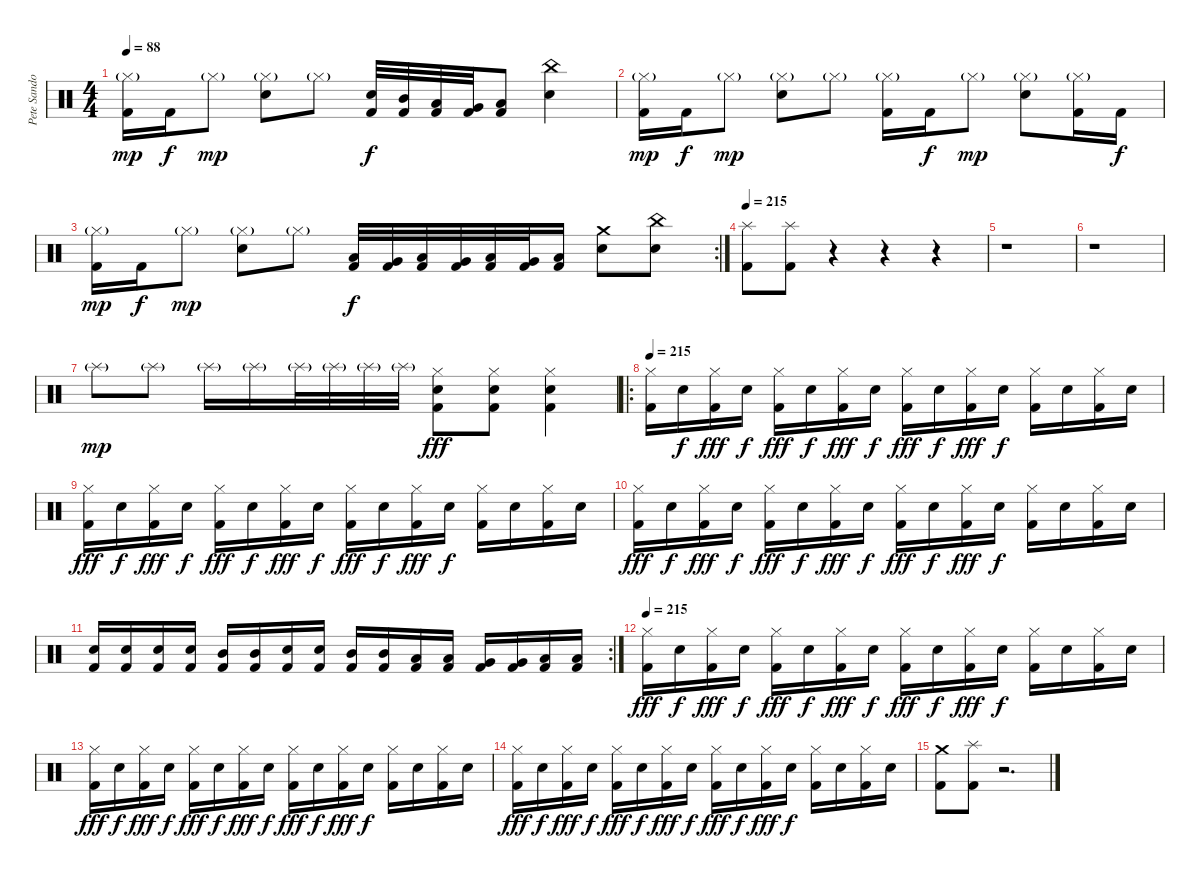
\track ("Pete Sandoval" "Pete Sando") {instrument percussion}
\staff {score}
\articulation defaults
\ts (4 4)
\tempo 88
\clef neutral
\ks c
("Hi-Hat (closed)"{g} "Kick (hit) 2").16{dy mp} "Kick (hit) 2".16{dy f} "Hi-Hat (closed)"{g}.8{dy mp} ("Hi-Hat (closed)"{g} "Snare (hit) 2").8 "Hi-Hat (closed)"{g}.8 ("Snare (hit) 2" "Kick (hit) 2").32{dy f} ("Mid Tom (hit)" "Kick (hit) 2").32 ("Low Tom (hit)" "Kick (hit) 2").32 ("Very Low Tom (hit)" "Kick (hit) 2").32 ("Low Floor Tom (hit)" "Kick (hit) 2").8 ("China (hit)" "Snare (hit) 2").4 |
("Hi-Hat (closed)"{g} "Kick (hit) 2").16{dy mp} "Kick (hit) 2".16{dy f} "Hi-Hat (closed)"{g}.8{dy mp} ("Hi-Hat (closed)"{g} "Snare (hit) 2").8 "Hi-Hat (closed)"{g}.8 ("Hi-Hat (closed)"{g} "Kick (hit) 2").16 "Kick (hit) 2".16{dy f} "Hi-Hat (closed)"{g}.8{dy mp} ("Hi-Hat (closed)"{g} "Snare (hit) 2").8 ("Hi-Hat (closed)"{g} "Kick (hit) 2").16 "Kick (hit) 2".16{dy f} |
\rc 2
("Hi-Hat (closed)"{g} "Kick (hit) 2").16{dy mp} "Kick (hit) 2".16{dy f} "Hi-Hat (closed)"{g}.8{dy mp} ("Hi-Hat (closed)"{g} "Snare (hit) 2").8 "Hi-Hat (closed)"{g}.8 ("Low Tom (hit)" "Kick (hit) 2").32{dy f} ("Very Low Tom (hit)" "Kick (hit) 2").32 ("Low Floor Tom (hit)" "Kick (hit) 2").32 ("Very Low Tom (hit)" "Kick (hit) 2").32 ("Low Tom (hit)" "Kick (hit) 2").32 ("Very Low Tom (hit)" "Kick (hit) 2").32 ("Low Floor Tom (hit)" "Kick (hit) 2").16 ("Crash medium (hit)" "Snare (hit) 2").8 ("China (hit)" "Snare (hit) 2").8 |
\tempo 215
("Splash (hit)" "Kick (hit) 2").8 ("Splash (hit)" "Kick (hit) 2").8 r.4 r.4 r.4 |
r.1 |
r.1 |
"Splash (hit)"{g}.8{dy mp} "Splash (hit)"{g}.8 "Splash (hit)"{g}.16 "Splash (hit)"{g}.16 "Splash (hit)"{g}.32 "Splash (hit)"{g}.32 "Splash (hit)"{g}.32 "Splash (hit)"{g}.32 ("Hi-Hat (closed)" "Snare (hit) 2" "Kick (hit) 2").8{dy fff} ("Hi-Hat (closed)" "Snare (hit) 2" "Kick (hit) 2").8 ("Hi-Hat (closed)" "Snare (hit) 2" "Kick (hit) 2").4 |
\ro
\tempo 215
("Hi-Hat (closed)" "Kick (hit) 2").16 "Snare (hit) 2".16{dy f} ("Hi-Hat (closed)" "Kick (hit) 2").16{dy fff} "Snare (hit) 2".16{dy f} ("Hi-Hat (closed)" "Kick (hit) 2").16{dy fff} "Snare (hit) 2".16{dy f} ("Hi-Hat (closed)" "Kick (hit) 2").16{dy fff} "Snare (hit) 2".16{dy f} ("Hi-Hat (closed)" "Kick (hit) 2").16{dy fff} "Snare (hit) 2".16{dy f} ("Hi-Hat (closed)" "Kick (hit) 2").16{dy fff} "Snare (hit) 2".16{dy f} ("Hi-Hat (closed)" "Kick (hit) 2").16 "Snare (hit) 2".16 ("Hi-Hat (closed)" "Kick (hit) 2").16 "Snare (hit) 2".16 |
("Hi-Hat (closed)" "Kick (hit) 2").16{dy fff} "Snare (hit) 2".16{dy f} ("Hi-Hat (closed)" "Kick (hit) 2").16{dy fff} "Snare (hit) 2".16{dy f} ("Hi-Hat (closed)" "Kick (hit) 2").16{dy fff} "Snare (hit) 2".16{dy f} ("Hi-Hat (closed)" "Kick (hit) 2").16{dy fff} "Snare (hit) 2".16{dy f} ("Hi-Hat (closed)" "Kick (hit) 2").16{dy fff} "Snare (hit) 2".16{dy f} ("Hi-Hat (closed)" "Kick (hit) 2").16{dy fff} "Snare (hit) 2".16{dy f} ("Hi-Hat (closed)" "Kick (hit) 2").16 "Snare (hit) 2".16 ("Hi-Hat (closed)" "Kick (hit) 2").16 "Snare (hit) 2".16 |
("Hi-Hat (closed)" "Kick (hit) 2").16{dy fff} "Snare (hit) 2".16{dy f} ("Hi-Hat (closed)" "Kick (hit) 2").16{dy fff} "Snare (hit) 2".16{dy f} ("Hi-Hat (closed)" "Kick (hit) 2").16{dy fff} "Snare (hit) 2".16{dy f} ("Hi-Hat (closed)" "Kick (hit) 2").16{dy fff} "Snare (hit) 2".16{dy f} ("Hi-Hat (closed)" "Kick (hit) 2").16{dy fff} "Snare (hit) 2".16{dy f} ("Hi-Hat (closed)" "Kick (hit) 2").16{dy fff} "Snare (hit) 2".16{dy f} ("Hi-Hat (closed)" "Kick (hit) 2").16 "Snare (hit) 2".16 ("Hi-Hat (closed)" "Kick (hit) 2").16 "Snare (hit) 2".16 |
\rc 2
("Snare (hit) 2" "Kick (hit) 2").16 ("Snare (hit) 2" "Kick (hit) 2").16 ("Snare (hit) 2" "Kick (hit) 2").16 ("Snare (hit) 2" "Kick (hit) 2").16 ("Mid Tom (hit)" "Kick (hit) 2").16 ("Mid Tom (hit)" "Kick (hit) 2").16 ("Snare (hit) 2" "Kick (hit) 2").16 ("Snare (hit) 2" "Kick (hit) 2").16 ("Mid Tom (hit)" "Kick (hit) 2").16 ("Mid Tom (hit)" "Kick (hit) 2").16 ("Low Tom (hit)" "Kick (hit) 2").16 ("Low Tom (hit)" "Kick (hit) 2").16 ("Very Low Tom (hit)" "Kick (hit) 2").16 ("Very Low Tom (hit)" "Kick (hit) 2").16 ("Low Floor Tom (hit)" "Kick (hit) 2").16 ("Low Floor Tom (hit)" "Kick (hit) 2").16 |
\tempo 215
("Hi-Hat (closed)" "Kick (hit) 2").16{dy fff} "Snare (hit) 2".16{dy f} ("Hi-Hat (closed)" "Kick (hit) 2").16{dy fff} "Snare (hit) 2".16{dy f} ("Hi-Hat (closed)" "Kick (hit) 2").16{dy fff} "Snare (hit) 2".16{dy f} ("Hi-Hat (closed)" "Kick (hit) 2").16{dy fff} "Snare (hit) 2".16{dy f} ("Hi-Hat (closed)" "Kick (hit) 2").16{dy fff} "Snare (hit) 2".16{dy f} ("Hi-Hat (closed)" "Kick (hit) 2").16{dy fff} "Snare (hit) 2".16{dy f} ("Hi-Hat (closed)" "Kick (hit) 2").16 "Snare (hit) 2".16 ("Hi-Hat (closed)" "Kick (hit) 2").16 "Snare (hit) 2".16 |
("Hi-Hat (closed)" "Kick (hit) 2").16{dy fff} "Snare (hit) 2".16{dy f} ("Hi-Hat (closed)" "Kick (hit) 2").16{dy fff} "Snare (hit) 2".16{dy f} ("Hi-Hat (closed)" "Kick (hit) 2").16{dy fff} "Snare (hit) 2".16{dy f} ("Hi-Hat (closed)" "Kick (hit) 2").16{dy fff} "Snare (hit) 2".16{dy f} ("Hi-Hat (closed)" "Kick (hit) 2").16{dy fff} "Snare (hit) 2".16{dy f} ("Hi-Hat (closed)" "Kick (hit) 2").16{dy fff} "Snare (hit) 2".16{dy f} ("Hi-Hat (closed)" "Kick (hit) 2").16 "Snare (hit) 2".16 ("Hi-Hat (closed)" "Kick (hit) 2").16 "Snare (hit) 2".16 |
("Hi-Hat (closed)" "Kick (hit) 2").16{dy fff} "Snare (hit) 2".16{dy f} ("Hi-Hat (closed)" "Kick (hit) 2").16{dy fff} "Snare (hit) 2".16{dy f} ("Hi-Hat (closed)" "Kick (hit) 2").16{dy fff} "Snare (hit) 2".16{dy f} ("Hi-Hat (closed)" "Kick (hit) 2").16{dy fff} "Snare (hit) 2".16{dy f} ("Hi-Hat (closed)" "Kick (hit) 2").16{dy fff} "Snare (hit) 2".16{dy f} ("Hi-Hat (closed)" "Kick (hit) 2").16{dy fff} "Snare (hit) 2".16{dy f} ("Hi-Hat (closed)" "Kick (hit) 2").16 "Snare (hit) 2".16 ("Hi-Hat (closed)" "Kick (hit) 2").16 "Snare (hit) 2".16 |
("Crash medium (hit)" "Kick (hit) 2").8 ("Splash (hit)" "Kick (hit) 2").8 r.2{d}
